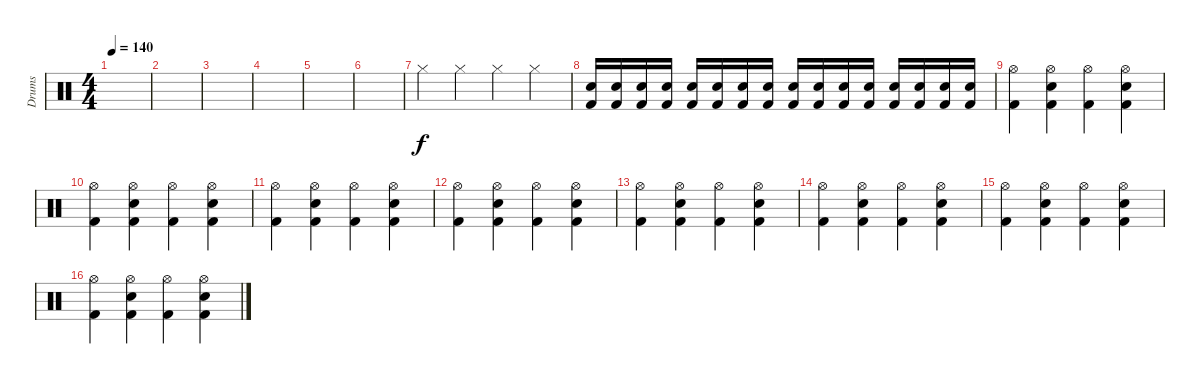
\track ("Drums" "Drums") {instrument percussion}
\staff {score}
\articulation defaults
\ts (4 4)
\tempo 140
\clef neutral
\ks c
|
|
|
|
|
|
"Hi-Hat (closed)".4 "Hi-Hat (closed)".4 "Hi-Hat (closed)".4 "Hi-Hat (closed)".4 |
("Electric Snare (hit)" "Kick (hit) 2").16 ("Electric Snare (hit)" "Kick (hit) 2").16 ("Electric Snare (hit)" "Kick (hit) 2").16 ("Electric Snare (hit)" "Kick (hit) 2").16 ("Electric Snare (hit)" "Kick (hit) 2").16 ("Electric Snare (hit)" "Kick (hit) 2").16 ("Electric Snare (hit)" "Kick (hit) 2").16 ("Electric Snare (hit)" "Kick (hit) 2").16 ("Electric Snare (hit)" "Kick (hit) 2").16 ("Electric Snare (hit)" "Kick (hit) 2").16 ("Electric Snare (hit)" "Kick (hit) 2").16 ("Electric Snare (hit)" "Kick (hit) 2").16 ("Electric Snare (hit)" "Kick (hit) 2").16 ("Electric Snare (hit)" "Kick (hit) 2").16 ("Electric Snare (hit)" "Kick (hit) 2").16 ("Electric Snare (hit)" "Kick (hit) 2").16 |
("Hi-Hat (open)" "Kick (hit) 2").4 ("Hi-Hat (open)" "Electric Snare (hit)" "Kick (hit) 2").4 ("Hi-Hat (open)" "Kick (hit) 2").4 ("Hi-Hat (open)" "Electric Snare (hit)" "Kick (hit) 2").4 |
("Hi-Hat (open)" "Kick (hit) 2").4 ("Hi-Hat (open)" "Electric Snare (hit)" "Kick (hit) 2").4 ("Hi-Hat (open)" "Kick (hit) 2").4 ("Hi-Hat (open)" "Electric Snare (hit)" "Kick (hit) 2").4 |
("Hi-Hat (open)" "Kick (hit) 2").4 ("Hi-Hat (open)" "Electric Snare (hit)" "Kick (hit) 2").4 ("Hi-Hat (open)" "Kick (hit) 2").4 ("Hi-Hat (open)" "Electric Snare (hit)" "Kick (hit) 2").4 |
("Hi-Hat (open)" "Kick (hit) 2").4 ("Hi-Hat (open)" "Electric Snare (hit)" "Kick (hit) 2").4 ("Hi-Hat (open)" "Kick (hit) 2").4 ("Hi-Hat (open)" "Electric Snare (hit)" "Kick (hit) 2").4 |
("Hi-Hat (open)" "Kick (hit) 2").4 ("Hi-Hat (open)" "Electric Snare (hit)" "Kick (hit) 2").4 ("Hi-Hat (open)" "Kick (hit) 2").4 ("Hi-Hat (open)" "Electric Snare (hit)" "Kick (hit) 2").4 |
("Hi-Hat (open)" "Kick (hit) 2").4 ("Hi-Hat (open)" "Electric Snare (hit)" "Kick (hit) 2").4 ("Hi-Hat (open)" "Kick (hit) 2").4 ("Hi-Hat (open)" "Electric Snare (hit)" "Kick (hit) 2").4 |
("Hi-Hat (open)" "Kick (hit) 2").4 ("Hi-Hat (open)" "Electric Snare (hit)" "Kick (hit) 2").4 ("Hi-Hat (open)" "Kick (hit) 2").4 ("Hi-Hat (open)" "Electric Snare (hit)" "Kick (hit) 2").4 |
("Hi-Hat (open)" "Kick (hit) 2").4 ("Hi-Hat (open)" "Electric Snare (hit)" "Kick (hit) 2").4 ("Hi-Hat (open)" "Kick (hit) 2").4 ("Hi-Hat (open)" "Electric Snare (hit)" "Kick (hit) 2").4
